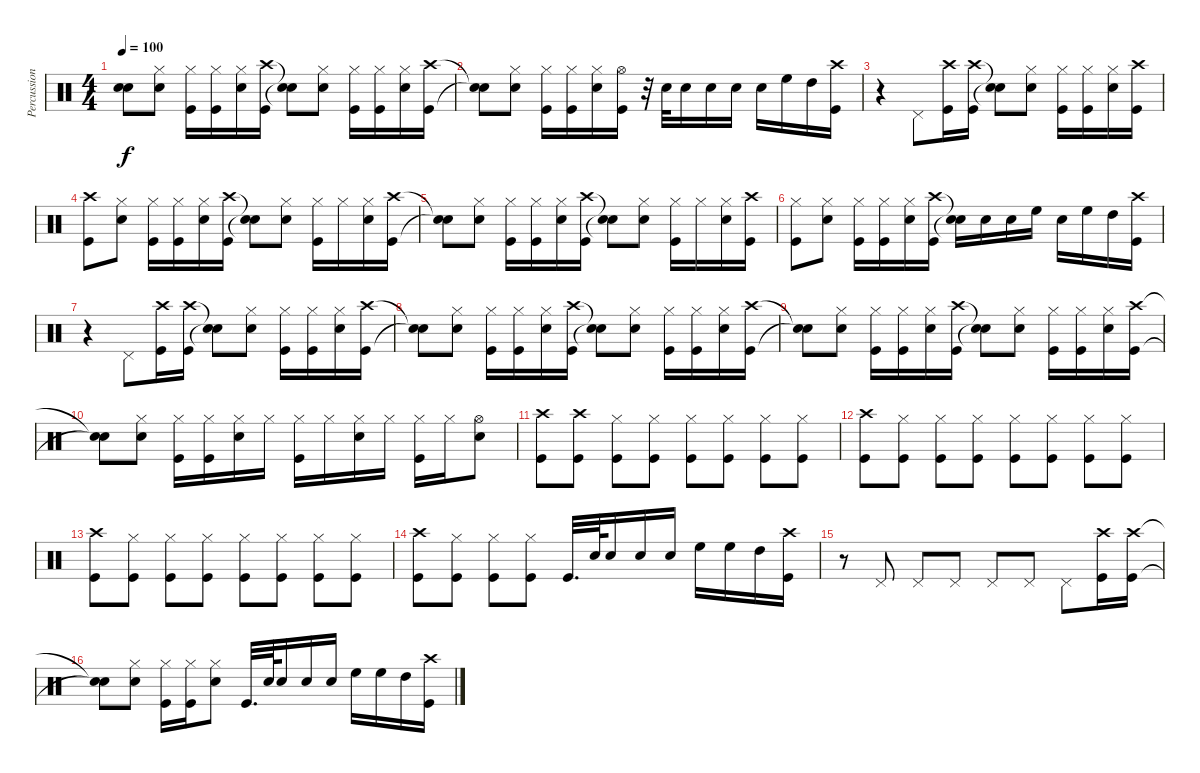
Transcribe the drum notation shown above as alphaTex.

\track ("Percussions" "Percussion") {instrument percussion}
\staff {score}
\articulation defaults
\ts (4 4)
\tempo 100
\clef neutral
\ks c
("Snare (hit)"{t} "Snare (hit)"{t}).8{dy f} ("Hi-Hat (closed)" "Snare (hit) 2").8 ("Hi-Hat (closed)" "Kick (hit)").16 ("Hi-Hat (closed)" "Kick (hit)").16 ("Hi-Hat (closed)" "Snare (hit) 2").16 ("Crash high (hit)" "Kick (hit)").16 ("Snare (hit)"{t} "Snare (hit)"{t}).8 ("Hi-Hat (closed)" "Snare (hit) 2").8 ("Hi-Hat (closed)" "Kick (hit)").16 ("Hi-Hat (closed)" "Kick (hit)").16 ("Hi-Hat (closed)" "Snare (hit) 2").16 ("Crash high (hit)" "Kick (hit)").16 |
("Snare (hit)"{t} "Snare (hit)"{t}).8 ("Hi-Hat (closed)" "Snare (hit) 2").8 ("Hi-Hat (closed)" "Kick (hit)").16 ("Hi-Hat (closed)" "Kick (hit)").16 ("Hi-Hat (closed)" "Snare (hit) 2").16 ("Hi-Hat (open)" "Kick (hit)").16 r.32 "Snare (hit) 2".32 "Snare (hit) 2".16 "Snare (hit) 2".16 "Snare (hit) 2".16 "Snare (hit) 2".16 "High Floor Tom (hit)".16 "High Tom (hit)".16 ("Crash high (hit)" "Kick (hit)").16 |
r.4 "Pedal Hi-Hat (hit)".8 ("Crash high (hit)" "Kick (hit)").16 ("Crash high (hit)" "Kick (hit)").16 ("Snare (hit)"{t} "Snare (hit)"{t}).8 ("Hi-Hat (closed)" "Snare (hit) 2").8 ("Hi-Hat (closed)" "Kick (hit)").16 ("Hi-Hat (closed)" "Kick (hit)").16 ("Hi-Hat (closed)" "Snare (hit) 2").16 ("Crash high (hit)" "Kick (hit)").16 |
("Crash high (hit)" "Kick (hit)").8 ("Hi-Hat (closed)" "Snare (hit) 2").8 ("Hi-Hat (closed)" "Kick (hit)").16 ("Hi-Hat (closed)" "Kick (hit)").16 ("Hi-Hat (closed)" "Snare (hit) 2").16 ("Crash high (hit)" "Kick (hit)").16 ("Snare (hit)"{t} "Snare (hit)"{t}).8 ("Hi-Hat (closed)" "Snare (hit) 2").8 ("Hi-Hat (closed)" "Kick (hit)").16 "Hi-Hat (closed)".16 ("Hi-Hat (closed)" "Snare (hit) 2").16 ("Crash high (hit)" "Kick (hit)").16 |
("Snare (hit)"{t} "Snare (hit)"{t}).8 ("Hi-Hat (closed)" "Snare (hit) 2").8 ("Hi-Hat (closed)" "Kick (hit)").16 ("Hi-Hat (closed)" "Kick (hit)").16 ("Hi-Hat (closed)" "Snare (hit) 2").16 ("Crash high (hit)" "Kick (hit)").16 ("Snare (hit)"{t} "Snare (hit)"{t}).8 ("Hi-Hat (closed)" "Snare (hit) 2").8 ("Hi-Hat (closed)" "Kick (hit)").16 "Hi-Hat (closed)".16 ("Hi-Hat (closed)" "Snare (hit) 2").16 ("Crash high (hit)" "Kick (hit)").16 |
("Hi-Hat (closed)" "Kick (hit)").8 ("Hi-Hat (closed)" "Snare (hit) 2").8 ("Hi-Hat (closed)" "Kick (hit)").16 ("Hi-Hat (closed)" "Kick (hit)").16 ("Hi-Hat (closed)" "Snare (hit) 2").16 ("Crash high (hit)" "Kick (hit)").16 ("Snare (hit)"{t} "Snare (hit)"{t}).16 "Snare (hit) 2".16 "Snare (hit) 2".16 "High Floor Tom (hit)".16 "Snare (hit) 2".16 "High Floor Tom (hit)".16 "High Tom (hit)".16 ("Crash high (hit)" "Kick (hit)").16 |
r.4 "Pedal Hi-Hat (hit)".8 ("Crash high (hit)" "Kick (hit)").16 ("Crash high (hit)" "Kick (hit)").16 ("Snare (hit)"{t} "Snare (hit)"{t}).8 ("Hi-Hat (closed)" "Snare (hit) 2").8 ("Hi-Hat (closed)" "Kick (hit)").16 ("Hi-Hat (closed)" "Kick (hit)").16 ("Hi-Hat (closed)" "Snare (hit) 2").16 ("Crash high (hit)" "Kick (hit)").16 |
("Snare (hit)"{t} "Snare (hit)"{t}).8 ("Hi-Hat (closed)" "Snare (hit) 2").8 ("Hi-Hat (closed)" "Kick (hit)").16 ("Hi-Hat (closed)" "Kick (hit)").16 ("Hi-Hat (closed)" "Snare (hit) 2").16 ("Crash high (hit)" "Kick (hit)").16 ("Snare (hit)"{t} "Snare (hit)"{t}).8 ("Hi-Hat (closed)" "Snare (hit) 2").8 ("Hi-Hat (closed)" "Kick (hit)").16 ("Hi-Hat (closed)" "Kick (hit)").16 ("Hi-Hat (closed)" "Snare (hit) 2").16 ("Crash high (hit)" "Kick (hit)").16 |
("Snare (hit)"{t} "Snare (hit)"{t}).8 ("Hi-Hat (closed)" "Snare (hit) 2").8 ("Hi-Hat (closed)" "Kick (hit)").16 ("Hi-Hat (closed)" "Kick (hit)").16 ("Hi-Hat (closed)" "Snare (hit) 2").16 ("Crash high (hit)" "Kick (hit)").16 ("Snare (hit)"{t} "Snare (hit)"{t}).8 ("Hi-Hat (closed)" "Snare (hit) 2").8 ("Hi-Hat (closed)" "Kick (hit)").16 ("Hi-Hat (closed)" "Kick (hit)").16 ("Hi-Hat (closed)" "Snare (hit) 2").16 ("Crash high (hit)" "Kick (hit)").16 |
("Snare (hit)"{t} "Snare (hit)"{t}).8 ("Hi-Hat (closed)" "Snare (hit) 2").8 ("Hi-Hat (closed)" "Kick (hit)").16 ("Hi-Hat (closed)" "Kick (hit)").16 ("Hi-Hat (closed)" "Snare (hit) 2").16 "Hi-Hat (closed)".16 ("Hi-Hat (closed)" "Kick (hit)").16 "Hi-Hat (closed)".16 ("Hi-Hat (closed)" "Snare (hit) 2").16 "Hi-Hat (closed)".16 ("Hi-Hat (closed)" "Kick (hit)").16 "Hi-Hat (closed)".16 ("Hi-Hat (open)" "Snare (hit) 2").8 |
("Crash high (hit)" "Kick (hit)").8 ("Crash high (hit)" "Kick (hit)").8 ("Hi-Hat (closed)" "Kick (hit)").8 ("Hi-Hat (closed)" "Kick (hit)").8 ("Hi-Hat (closed)" "Kick (hit)").8 ("Hi-Hat (closed)" "Kick (hit)").8 ("Hi-Hat (closed)" "Kick (hit)").8 ("Hi-Hat (closed)" "Kick (hit)").8 |
("Crash high (hit)" "Kick (hit)").8 ("Hi-Hat (closed)" "Kick (hit)").8 ("Hi-Hat (closed)" "Kick (hit)").8 ("Hi-Hat (closed)" "Kick (hit)").8 ("Hi-Hat (closed)" "Kick (hit)").8 ("Hi-Hat (closed)" "Kick (hit)").8 ("Hi-Hat (closed)" "Kick (hit)").8 ("Hi-Hat (closed)" "Kick (hit)").8 |
("Crash high (hit)" "Kick (hit)").8 ("Hi-Hat (closed)" "Kick (hit)").8 ("Hi-Hat (closed)" "Kick (hit)").8 ("Hi-Hat (closed)" "Kick (hit)").8 ("Hi-Hat (closed)" "Kick (hit)").8 ("Hi-Hat (closed)" "Kick (hit)").8 ("Hi-Hat (closed)" "Kick (hit)").8 ("Hi-Hat (closed)" "Kick (hit)").8 |
("Crash high (hit)" "Kick (hit)").8 ("Hi-Hat (closed)" "Kick (hit)").8 ("Hi-Hat (closed)" "Kick (hit)").8 ("Hi-Hat (closed)" "Kick (hit)").8 "Kick (hit)".32{d} "Snare (hit) 2".64 "Snare (hit) 2".16 "Snare (hit) 2".16 "Snare (hit) 2".16 "High Floor Tom (hit)".16 "High Floor Tom (hit)".16 "High Tom (hit)".16 ("Crash high (hit)" "Kick (hit)").16 |
r.8 "Pedal Hi-Hat (hit)".8 "Pedal Hi-Hat (hit)".8 "Pedal Hi-Hat (hit)".8 "Pedal Hi-Hat (hit)".8 "Pedal Hi-Hat (hit)".8 "Pedal Hi-Hat (hit)".8 ("Crash high (hit)" "Kick (hit)").16 ("Crash high (hit)" "Kick (hit)").16 |
("Snare (hit)"{t} "Snare (hit)"{t}).8 ("Hi-Hat (closed)" "Snare (hit) 2").8 ("Hi-Hat (closed)" "Kick (hit)").16 ("Hi-Hat (closed)" "Kick (hit)").16 ("Hi-Hat (closed)" "Snare (hit) 2").8 "Kick (hit)".32{d} "Snare (hit) 2".64 "Snare (hit) 2".16 "Snare (hit) 2".16 "Snare (hit) 2".16 "High Floor Tom (hit)".16 "High Floor Tom (hit)".16 "High Tom (hit)".16 ("Crash high (hit)" "Kick (hit)").16
